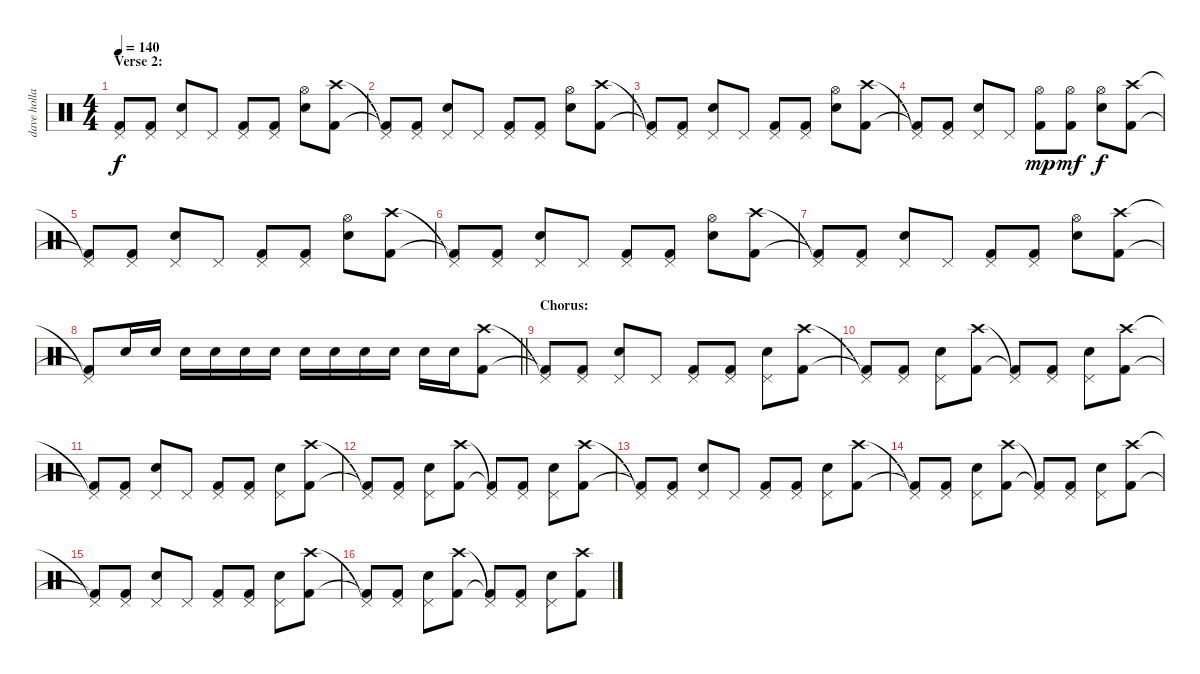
\track ("dave holland" "dave holla") {instrument percussion}
\staff {score}
\articulation defaults
\ts (4 4)
\section ("" "Verse 2:")
\tempo 140
\clef neutral
\ks c
("Pedal Hi-Hat (hit)"{t} "Kick (hit) 2"{t}).8{dy f} ("Pedal Hi-Hat (hit)" "Kick (hit) 2").8 ("Pedal Hi-Hat (hit)" "Snare (hit) 2").8 "Pedal Hi-Hat (hit)".8 ("Pedal Hi-Hat (hit)" "Kick (hit) 2").8 ("Pedal Hi-Hat (hit)" "Kick (hit) 2").8 ("Hi-Hat (open)" "Snare (hit) 2").8 ("Crash high (hit)" "Kick (hit) 2").8 |
("Pedal Hi-Hat (hit)"{t} "Kick (hit) 2"{t}).8 ("Pedal Hi-Hat (hit)" "Kick (hit) 2").8 ("Pedal Hi-Hat (hit)" "Snare (hit) 2").8 "Pedal Hi-Hat (hit)".8 ("Pedal Hi-Hat (hit)" "Kick (hit) 2").8 ("Pedal Hi-Hat (hit)" "Kick (hit) 2").8 ("Hi-Hat (open)" "Snare (hit) 2").8 ("Crash high (hit)" "Kick (hit) 2").8 |
("Pedal Hi-Hat (hit)"{t} "Kick (hit) 2"{t}).8 ("Pedal Hi-Hat (hit)" "Kick (hit) 2").8 ("Pedal Hi-Hat (hit)" "Snare (hit) 2").8 "Pedal Hi-Hat (hit)".8 ("Pedal Hi-Hat (hit)" "Kick (hit) 2").8 ("Pedal Hi-Hat (hit)" "Kick (hit) 2").8 ("Hi-Hat (open)" "Snare (hit) 2").8 ("Crash high (hit)" "Kick (hit) 2").8 |
("Pedal Hi-Hat (hit)"{t} "Kick (hit) 2"{t}).8 ("Pedal Hi-Hat (hit)" "Kick (hit) 2").8 ("Pedal Hi-Hat (hit)" "Snare (hit) 2").8 "Pedal Hi-Hat (hit)".8 ("Hi-Hat (open)" "Kick (hit) 2").8{dy mp} ("Hi-Hat (open)" "Kick (hit) 2").8{dy mf} ("Hi-Hat (open)" "Snare (hit) 2").8{dy f} ("Crash high (hit)" "Kick (hit) 2").8 |
("Pedal Hi-Hat (hit)"{t} "Kick (hit) 2"{t}).8 ("Pedal Hi-Hat (hit)" "Kick (hit) 2").8 ("Pedal Hi-Hat (hit)" "Snare (hit) 2").8 "Pedal Hi-Hat (hit)".8 ("Pedal Hi-Hat (hit)" "Kick (hit) 2").8 ("Pedal Hi-Hat (hit)" "Kick (hit) 2").8 ("Hi-Hat (open)" "Snare (hit) 2").8 ("Crash high (hit)" "Kick (hit) 2").8 |
("Pedal Hi-Hat (hit)"{t} "Kick (hit) 2"{t}).8 ("Pedal Hi-Hat (hit)" "Kick (hit) 2").8 ("Pedal Hi-Hat (hit)" "Snare (hit) 2").8 "Pedal Hi-Hat (hit)".8 ("Pedal Hi-Hat (hit)" "Kick (hit) 2").8 ("Pedal Hi-Hat (hit)" "Kick (hit) 2").8 ("Hi-Hat (open)" "Snare (hit) 2").8 ("Crash high (hit)" "Kick (hit) 2").8 |
("Pedal Hi-Hat (hit)"{t} "Kick (hit) 2"{t}).8 ("Pedal Hi-Hat (hit)" "Kick (hit) 2").8 ("Pedal Hi-Hat (hit)" "Snare (hit) 2").8 "Pedal Hi-Hat (hit)".8 ("Pedal Hi-Hat (hit)" "Kick (hit) 2").8 ("Pedal Hi-Hat (hit)" "Kick (hit) 2").8 ("Hi-Hat (open)" "Snare (hit) 2").8 ("Crash high (hit)" "Kick (hit) 2").8 |
\barLineRight lightlight
("Pedal Hi-Hat (hit)"{t} "Kick (hit) 2"{t}).8 "Snare (hit) 2".16 "Snare (hit) 2".16 "Snare (hit) 2".16 "Snare (hit) 2".16 "Snare (hit) 2".16 "Snare (hit) 2".16 "Snare (hit) 2".16 "Snare (hit) 2".16 "Snare (hit) 2".16 "Snare (hit) 2".16 "Snare (hit) 2".16 "Snare (hit) 2".16 ("Crash high (hit)" "Kick (hit) 2").8 |
\section ("" "Chorus:")
("Pedal Hi-Hat (hit)"{t} "Kick (hit) 2"{t}).8 ("Pedal Hi-Hat (hit)" "Kick (hit) 2").8 ("Pedal Hi-Hat (hit)" "Snare (hit) 2").8 "Pedal Hi-Hat (hit)".8 ("Pedal Hi-Hat (hit)" "Kick (hit) 2").8 ("Pedal Hi-Hat (hit)" "Kick (hit) 2").8 ("Pedal Hi-Hat (hit)" "Snare (hit) 2").8 ("Crash high (hit)" "Kick (hit) 2").8 |
("Pedal Hi-Hat (hit)"{t} "Kick (hit) 2"{t}).8 ("Pedal Hi-Hat (hit)" "Kick (hit) 2").8 ("Pedal Hi-Hat (hit)" "Snare (hit) 2").8 ("Crash high (hit)" "Kick (hit) 2").8 ("Pedal Hi-Hat (hit)"{t} "Kick (hit) 2"{t}).8 ("Pedal Hi-Hat (hit)" "Kick (hit) 2").8 ("Pedal Hi-Hat (hit)" "Snare (hit) 2").8 ("Crash high (hit)" "Kick (hit) 2").8 |
("Pedal Hi-Hat (hit)"{t} "Kick (hit) 2"{t}).8 ("Pedal Hi-Hat (hit)" "Kick (hit) 2").8 ("Pedal Hi-Hat (hit)" "Snare (hit) 2").8 "Pedal Hi-Hat (hit)".8 ("Pedal Hi-Hat (hit)" "Kick (hit) 2").8 ("Pedal Hi-Hat (hit)" "Kick (hit) 2").8 ("Pedal Hi-Hat (hit)" "Snare (hit) 2").8 ("Crash high (hit)" "Kick (hit) 2").8 |
("Pedal Hi-Hat (hit)"{t} "Kick (hit) 2"{t}).8 ("Pedal Hi-Hat (hit)" "Kick (hit) 2").8 ("Pedal Hi-Hat (hit)" "Snare (hit) 2").8 ("Crash high (hit)" "Kick (hit) 2").8 ("Pedal Hi-Hat (hit)"{t} "Kick (hit) 2"{t}).8 ("Pedal Hi-Hat (hit)" "Kick (hit) 2").8 ("Pedal Hi-Hat (hit)" "Snare (hit) 2").8 ("Crash high (hit)" "Kick (hit) 2").8 |
("Pedal Hi-Hat (hit)"{t} "Kick (hit) 2"{t}).8 ("Pedal Hi-Hat (hit)" "Kick (hit) 2").8 ("Pedal Hi-Hat (hit)" "Snare (hit) 2").8 "Pedal Hi-Hat (hit)".8 ("Pedal Hi-Hat (hit)" "Kick (hit) 2").8 ("Pedal Hi-Hat (hit)" "Kick (hit) 2").8 ("Pedal Hi-Hat (hit)" "Snare (hit) 2").8 ("Crash high (hit)" "Kick (hit) 2").8 |
("Pedal Hi-Hat (hit)"{t} "Kick (hit) 2"{t}).8 ("Pedal Hi-Hat (hit)" "Kick (hit) 2").8 ("Pedal Hi-Hat (hit)" "Snare (hit) 2").8 ("Crash high (hit)" "Kick (hit) 2").8 ("Pedal Hi-Hat (hit)"{t} "Kick (hit) 2"{t}).8 ("Pedal Hi-Hat (hit)" "Kick (hit) 2").8 ("Pedal Hi-Hat (hit)" "Snare (hit) 2").8 ("Crash high (hit)" "Kick (hit) 2").8 |
("Pedal Hi-Hat (hit)"{t} "Kick (hit) 2"{t}).8 ("Pedal Hi-Hat (hit)" "Kick (hit) 2").8 ("Pedal Hi-Hat (hit)" "Snare (hit) 2").8 "Pedal Hi-Hat (hit)".8 ("Pedal Hi-Hat (hit)" "Kick (hit) 2").8 ("Pedal Hi-Hat (hit)" "Kick (hit) 2").8 ("Pedal Hi-Hat (hit)" "Snare (hit) 2").8 ("Crash high (hit)" "Kick (hit) 2").8 |
("Pedal Hi-Hat (hit)"{t} "Kick (hit) 2"{t}).8 ("Pedal Hi-Hat (hit)" "Kick (hit) 2").8 ("Pedal Hi-Hat (hit)" "Snare (hit) 2").8 ("Crash high (hit)" "Kick (hit) 2").8 ("Pedal Hi-Hat (hit)"{t} "Kick (hit) 2"{t}).8 ("Pedal Hi-Hat (hit)" "Kick (hit) 2").8 ("Pedal Hi-Hat (hit)" "Snare (hit) 2").8 ("Crash high (hit)" "Kick (hit) 2").8
